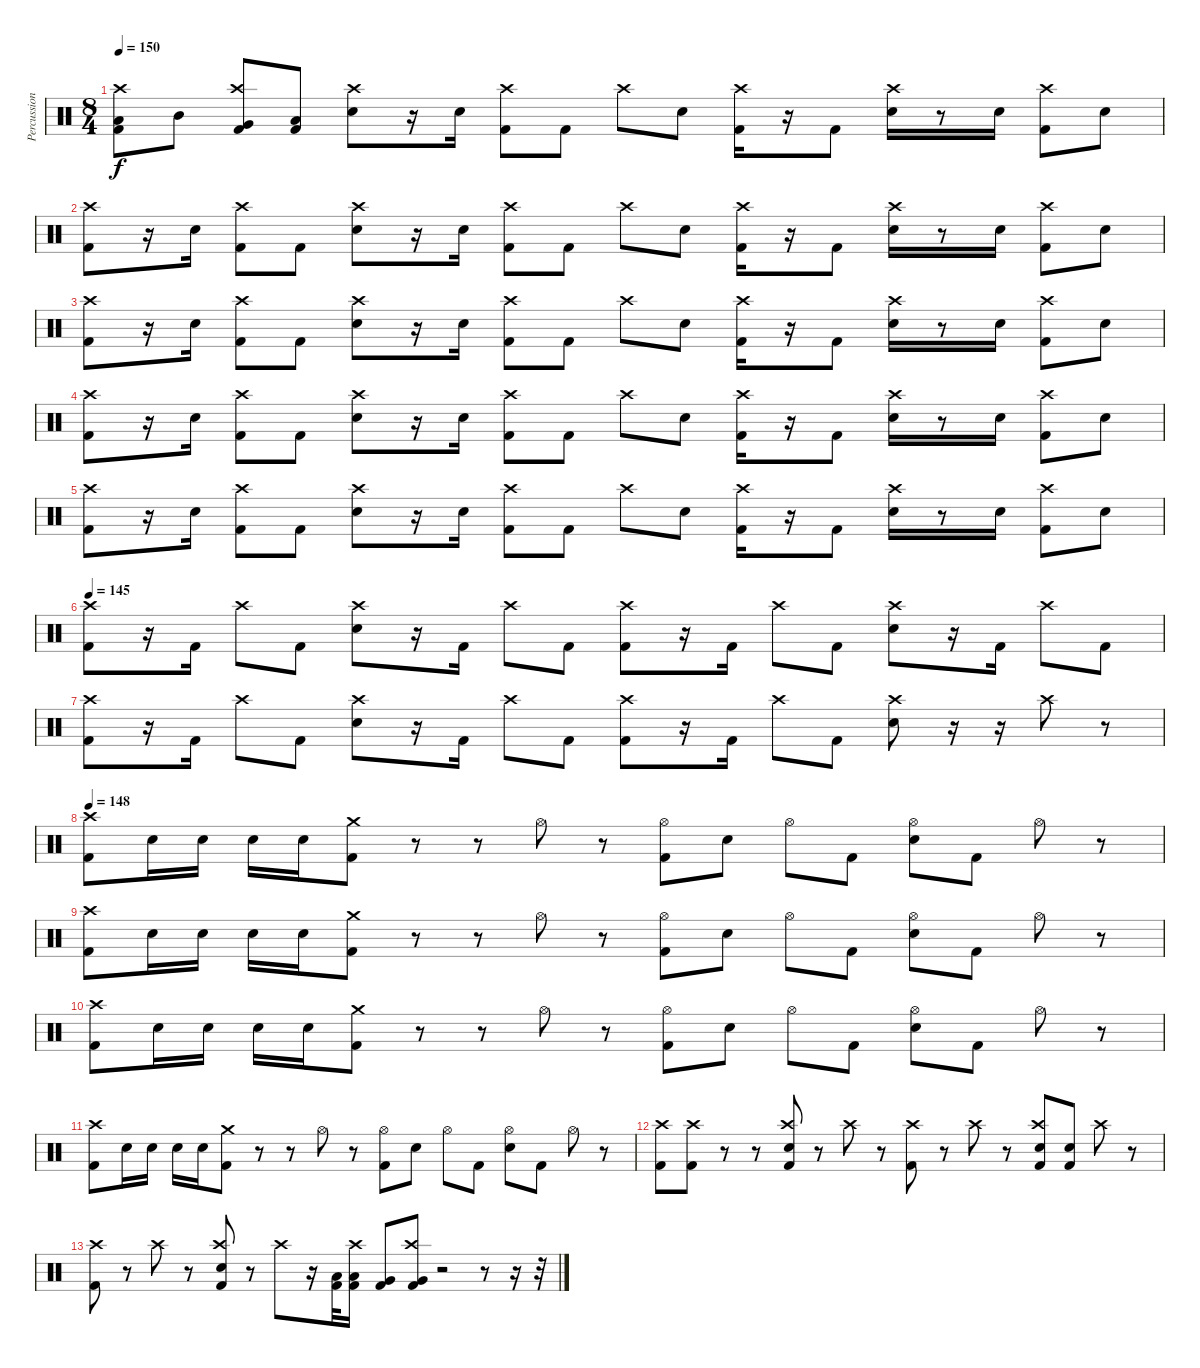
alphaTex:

\track ("Percussion" "Percussion") {instrument percussion}
\staff {score}
\articulation defaults
\ts (8 4)
\tempo 150
\clef neutral
\ks c
("Low Floor Tom (hit)" "Kick (hit) 2" "Crash high (hit)").8{dy f} "Mid Tom (hit)".8 ("Very Low Tom (hit)" "Kick (hit) 2" "Crash high (hit)").8 ("Low Floor Tom (hit)" "Kick (hit) 2").8 ("Electric Snare (hit)" "Crash high (hit)").8 r.16 "Electric Snare (hit)".16 ("Kick (hit) 2" "Crash high (hit)").8 "Kick (hit) 2".8 "Crash high (hit)".8 "Electric Snare (hit)".8 ("Kick (hit) 2" "Crash high (hit)").16 r.16 "Kick (hit) 2".8 ("Electric Snare (hit)" "Crash high (hit)").16 r.8 "Electric Snare (hit)".16 ("Kick (hit) 2" "Crash high (hit)").8 "Electric Snare (hit)".8 |
("Kick (hit) 2" "Crash high (hit)").8 r.16 "Electric Snare (hit)".16 ("Kick (hit) 2" "Crash high (hit)").8 "Kick (hit) 2".8 ("Electric Snare (hit)" "Crash high (hit)").8 r.16 "Electric Snare (hit)".16 ("Kick (hit) 2" "Crash high (hit)").8 "Kick (hit) 2".8 "Crash high (hit)".8 "Electric Snare (hit)".8 ("Kick (hit) 2" "Crash high (hit)").16 r.16 "Kick (hit) 2".8 ("Electric Snare (hit)" "Crash high (hit)").16 r.8 "Electric Snare (hit)".16 ("Kick (hit) 2" "Crash high (hit)").8 "Electric Snare (hit)".8 |
("Kick (hit) 2" "Crash high (hit)").8 r.16 "Electric Snare (hit)".16 ("Kick (hit) 2" "Crash high (hit)").8 "Kick (hit) 2".8 ("Electric Snare (hit)" "Crash high (hit)").8 r.16 "Electric Snare (hit)".16 ("Kick (hit) 2" "Crash high (hit)").8 "Kick (hit) 2".8 "Crash high (hit)".8 "Electric Snare (hit)".8 ("Kick (hit) 2" "Crash high (hit)").16 r.16 "Kick (hit) 2".8 ("Electric Snare (hit)" "Crash high (hit)").16 r.8 "Electric Snare (hit)".16 ("Kick (hit) 2" "Crash high (hit)").8 "Electric Snare (hit)".8 |
("Kick (hit) 2" "Crash high (hit)").8 r.16 "Electric Snare (hit)".16 ("Kick (hit) 2" "Crash high (hit)").8 "Kick (hit) 2".8 ("Electric Snare (hit)" "Crash high (hit)").8 r.16 "Electric Snare (hit)".16 ("Kick (hit) 2" "Crash high (hit)").8 "Kick (hit) 2".8 "Crash high (hit)".8 "Electric Snare (hit)".8 ("Kick (hit) 2" "Crash high (hit)").16 r.16 "Kick (hit) 2".8 ("Electric Snare (hit)" "Crash high (hit)").16 r.8 "Electric Snare (hit)".16 ("Kick (hit) 2" "Crash high (hit)").8 "Electric Snare (hit)".8 |
("Kick (hit) 2" "Crash high (hit)").8 r.16 "Electric Snare (hit)".16 ("Kick (hit) 2" "Crash high (hit)").8 "Kick (hit) 2".8 ("Electric Snare (hit)" "Crash high (hit)").8 r.16 "Electric Snare (hit)".16 ("Kick (hit) 2" "Crash high (hit)").8 "Kick (hit) 2".8 "Crash high (hit)".8 "Electric Snare (hit)".8 ("Kick (hit) 2" "Crash high (hit)").16 r.16 "Kick (hit) 2".8 ("Electric Snare (hit)" "Crash high (hit)").16 r.8 "Electric Snare (hit)".16 ("Kick (hit) 2" "Crash high (hit)").8 "Electric Snare (hit)".8 |
\tempo 145
("Crash high (hit)" "Kick (hit) 2").8 r.16 "Kick (hit) 2".16 "Crash high (hit)".8 "Kick (hit) 2".8 ("Electric Snare (hit)" "Crash high (hit)").8 r.16 "Kick (hit) 2".16 "Crash high (hit)".8 "Kick (hit) 2".8 ("Crash high (hit)" "Kick (hit) 2").8 r.16 "Kick (hit) 2".16 "Crash high (hit)".8 "Kick (hit) 2".8 ("Electric Snare (hit)" "Crash high (hit)").8 r.16 "Kick (hit) 2".16 "Crash high (hit)".8 "Kick (hit) 2".8 |
("Crash high (hit)" "Kick (hit) 2").8 r.16 "Kick (hit) 2".16 "Crash high (hit)".8 "Kick (hit) 2".8 ("Electric Snare (hit)" "Crash high (hit)").8 r.16 "Kick (hit) 2".16 "Crash high (hit)".8 "Kick (hit) 2".8 ("Crash high (hit)" "Kick (hit) 2").8 r.16 "Kick (hit) 2".16 "Crash high (hit)".8 "Kick (hit) 2".8 ("Electric Snare (hit)" "Crash high (hit)").8 r.16 r.16 "Crash high (hit)".8 r.8 |
\tempo 148
("Crash high (hit)" "Kick (hit) 2").8 "Electric Snare (hit)".16 "Electric Snare (hit)".16 "Electric Snare (hit)".16 "Electric Snare (hit)".16 ("Crash medium (hit)" "Kick (hit) 2").8 r.8 r.8 "Hi-Hat (open)".8 r.8 ("Hi-Hat (open)" "Kick (hit) 2").8 "Electric Snare (hit)".8 "Hi-Hat (open)".8 "Kick (hit) 2".8 ("Electric Snare (hit)" "Hi-Hat (open)").8 "Kick (hit) 2".8 "Hi-Hat (open)".8 r.8 |
("Crash high (hit)" "Kick (hit) 2").8 "Electric Snare (hit)".16 "Electric Snare (hit)".16 "Electric Snare (hit)".16 "Electric Snare (hit)".16 ("Crash medium (hit)" "Kick (hit) 2").8 r.8 r.8 "Hi-Hat (open)".8 r.8 ("Hi-Hat (open)" "Kick (hit) 2").8 "Electric Snare (hit)".8 "Hi-Hat (open)".8 "Kick (hit) 2".8 ("Electric Snare (hit)" "Hi-Hat (open)").8 "Kick (hit) 2".8 "Hi-Hat (open)".8 r.8 |
("Crash high (hit)" "Kick (hit) 2").8 "Electric Snare (hit)".16 "Electric Snare (hit)".16 "Electric Snare (hit)".16 "Electric Snare (hit)".16 ("Crash medium (hit)" "Kick (hit) 2").8 r.8 r.8 "Hi-Hat (open)".8 r.8 ("Hi-Hat (open)" "Kick (hit) 2").8 "Electric Snare (hit)".8 "Hi-Hat (open)".8 "Kick (hit) 2".8 ("Electric Snare (hit)" "Hi-Hat (open)").8 "Kick (hit) 2".8 "Hi-Hat (open)".8 r.8 |
("Crash high (hit)" "Kick (hit) 2").8 "Electric Snare (hit)".16 "Electric Snare (hit)".16 "Electric Snare (hit)".16 "Electric Snare (hit)".16 ("Crash medium (hit)" "Kick (hit) 2").8 r.8 r.8 "Hi-Hat (open)".8 r.8 ("Hi-Hat (open)" "Kick (hit) 2").8 "Electric Snare (hit)".8 "Hi-Hat (open)".8 "Kick (hit) 2".8 ("Electric Snare (hit)" "Hi-Hat (open)").8 "Kick (hit) 2".8 "Hi-Hat (open)".8 r.8 |
("Crash high (hit)" "Kick (hit) 2").8 ("Crash high (hit)" "Kick (hit) 2").8 r.8 r.8 ("Electric Snare (hit)" "Crash high (hit)" "Kick (hit) 2").8 r.8 "Crash high (hit)".8 r.8 ("Crash high (hit)" "Kick (hit) 2").8 r.8 "Crash high (hit)".8 r.8 ("Electric Snare (hit)" "Crash high (hit)" "Kick (hit) 2").8 ("Electric Snare (hit)" "Kick (hit) 2").8 "Crash high (hit)".8 r.8 |
("Crash high (hit)" "Kick (hit) 2").8 r.8 "Crash high (hit)".8 r.8 ("Electric Snare (hit)" "Crash high (hit)" "Kick (hit) 2").8 r.8 "Crash high (hit)".8 r.16 ("Low Floor Tom (hit)" "Kick (hit) 2").32 ("Low Floor Tom (hit)" "Crash high (hit)" "Kick (hit) 2").16 ("Very Low Tom (hit)" "Kick (hit) 2").8 ("Very Low Tom (hit)" "Crash high (hit)" "Kick (hit) 2").8 r.2 r.8 r.16 r.32
